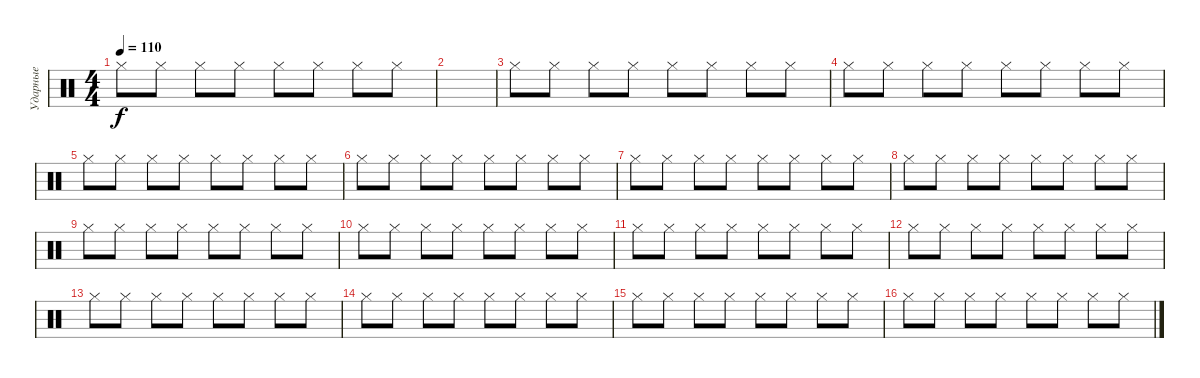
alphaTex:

\track ("Ударные" "Ударные") {instrument percussion}
\staff {score}
\articulation defaults
\ts (4 4)
\tempo 110
\clef neutral
\ks c "Hi-Hat (closed)".8{dy f} "Hi-Hat (closed)".8 "Hi-Hat (closed)".8 "Hi-Hat (closed)".8 "Hi-Hat (closed)".8 "Hi-Hat (closed)".8 "Hi-Hat (closed)".8 "Hi-Hat (closed)".8
|
|
"Hi-Hat (closed)".8 "Hi-Hat (closed)".8 "Hi-Hat (closed)".8 "Hi-Hat (closed)".8 "Hi-Hat (closed)".8 "Hi-Hat (closed)".8 "Hi-Hat (closed)".8 "Hi-Hat (closed)".8 |
"Hi-Hat (closed)".8 "Hi-Hat (closed)".8 "Hi-Hat (closed)".8 "Hi-Hat (closed)".8 "Hi-Hat (closed)".8 "Hi-Hat (closed)".8 "Hi-Hat (closed)".8 "Hi-Hat (closed)".8 |
"Hi-Hat (closed)".8 "Hi-Hat (closed)".8 "Hi-Hat (closed)".8 "Hi-Hat (closed)".8 "Hi-Hat (closed)".8 "Hi-Hat (closed)".8 "Hi-Hat (closed)".8 "Hi-Hat (closed)".8 |
"Hi-Hat (closed)".8 "Hi-Hat (closed)".8 "Hi-Hat (closed)".8 "Hi-Hat (closed)".8 "Hi-Hat (closed)".8 "Hi-Hat (closed)".8 "Hi-Hat (closed)".8 "Hi-Hat (closed)".8 |
"Hi-Hat (closed)".8 "Hi-Hat (closed)".8 "Hi-Hat (closed)".8 "Hi-Hat (closed)".8 "Hi-Hat (closed)".8 "Hi-Hat (closed)".8 "Hi-Hat (closed)".8 "Hi-Hat (closed)".8 |
"Hi-Hat (closed)".8 "Hi-Hat (closed)".8 "Hi-Hat (closed)".8 "Hi-Hat (closed)".8 "Hi-Hat (closed)".8 "Hi-Hat (closed)".8 "Hi-Hat (closed)".8 "Hi-Hat (closed)".8 |
"Hi-Hat (closed)".8 "Hi-Hat (closed)".8 "Hi-Hat (closed)".8 "Hi-Hat (closed)".8 "Hi-Hat (closed)".8 "Hi-Hat (closed)".8 "Hi-Hat (closed)".8 "Hi-Hat (closed)".8 |
"Hi-Hat (closed)".8 "Hi-Hat (closed)".8 "Hi-Hat (closed)".8 "Hi-Hat (closed)".8 "Hi-Hat (closed)".8 "Hi-Hat (closed)".8 "Hi-Hat (closed)".8 "Hi-Hat (closed)".8 |
"Hi-Hat (closed)".8 "Hi-Hat (closed)".8 "Hi-Hat (closed)".8 "Hi-Hat (closed)".8 "Hi-Hat (closed)".8 "Hi-Hat (closed)".8 "Hi-Hat (closed)".8 "Hi-Hat (closed)".8 |
"Hi-Hat (closed)".8 "Hi-Hat (closed)".8 "Hi-Hat (closed)".8 "Hi-Hat (closed)".8 "Hi-Hat (closed)".8 "Hi-Hat (closed)".8 "Hi-Hat (closed)".8 "Hi-Hat (closed)".8 |
"Hi-Hat (closed)".8 "Hi-Hat (closed)".8 "Hi-Hat (closed)".8 "Hi-Hat (closed)".8 "Hi-Hat (closed)".8 "Hi-Hat (closed)".8 "Hi-Hat (closed)".8 "Hi-Hat (closed)".8 |
"Hi-Hat (closed)".8 "Hi-Hat (closed)".8 "Hi-Hat (closed)".8 "Hi-Hat (closed)".8 "Hi-Hat (closed)".8 "Hi-Hat (closed)".8 "Hi-Hat (closed)".8 "Hi-Hat (closed)".8 |
"Hi-Hat (closed)".8 "Hi-Hat (closed)".8 "Hi-Hat (closed)".8 "Hi-Hat (closed)".8 "Hi-Hat (closed)".8 "Hi-Hat (closed)".8 "Hi-Hat (closed)".8 "Hi-Hat (closed)".8 |
"Hi-Hat (closed)".8 "Hi-Hat (closed)".8 "Hi-Hat (closed)".8 "Hi-Hat (closed)".8 "Hi-Hat (closed)".8 "Hi-Hat (closed)".8 "Hi-Hat (closed)".8 "Hi-Hat (closed)".8
